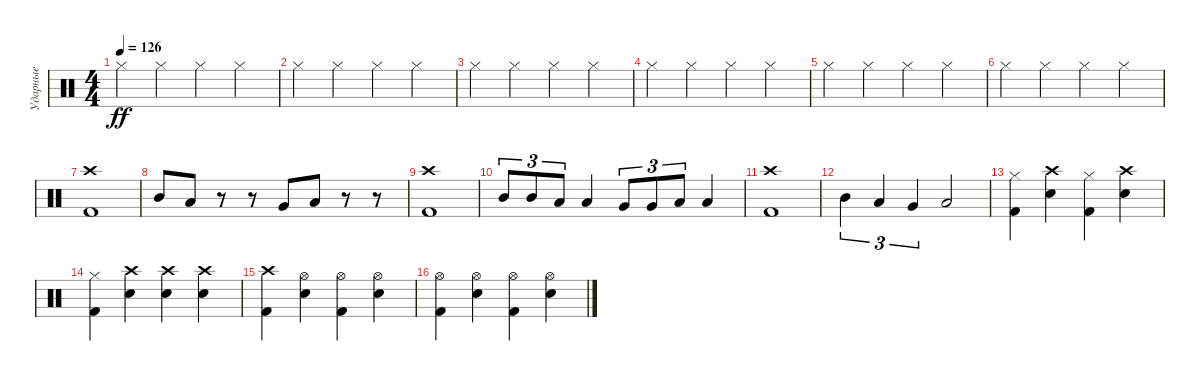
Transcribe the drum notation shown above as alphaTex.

\track ("Ударные" "Ударные") {instrument percussion}
\staff {score}
\articulation defaults
\ts (4 4)
\tempo 126
\clef neutral
\ks c "Hi-Hat (closed)".4{dy ff} "Hi-Hat (closed)".4 "Hi-Hat (closed)".4 "Hi-Hat (closed)".4
|
"Hi-Hat (closed)".4 "Hi-Hat (closed)".4 "Hi-Hat (closed)".4 "Hi-Hat (closed)".4 |
"Hi-Hat (closed)".4 "Hi-Hat (closed)".4 "Hi-Hat (closed)".4 "Hi-Hat (closed)".4 |
"Hi-Hat (closed)".4 "Hi-Hat (closed)".4 "Hi-Hat (closed)".4 "Hi-Hat (closed)".4 |
"Hi-Hat (closed)".4 "Hi-Hat (closed)".4 "Hi-Hat (closed)".4 "Hi-Hat (closed)".4 |
"Hi-Hat (closed)".4 "Hi-Hat (closed)".4 "Hi-Hat (closed)".4 "Hi-Hat (closed)".4 |
("Crash high (hit)" "Kick (hit) 2").1 |
"Mid Tom (hit)".8 "Low Tom (hit)".8 r.8 r.8 "Very Low Tom (hit)".8 "Low Floor Tom (hit)".8 r.8 r.8 |
("Crash high (hit)" "Kick (hit) 2").1 |
"Mid Tom (hit)".8{tu (3 2)} "Mid Tom (hit)".8{tu (3 2)} "Low Tom (hit)".8{tu (3 2)} "Low Tom (hit)".4 "Very Low Tom (hit)".8{tu (3 2)} "Very Low Tom (hit)".8{tu (3 2)} "Low Floor Tom (hit)".8{tu (3 2)} "Low Floor Tom (hit)".4 |
("Crash high (hit)" "Kick (hit) 2").1 |
"Mid Tom (hit)".4{tu (3 2)} "Low Tom (hit)".4{tu (3 2)} "Very Low Tom (hit)".4{tu (3 2)} "Low Floor Tom (hit)".2 |
("Kick (hit) 2" "Hi-Hat (closed)").4 ("Crash high (hit)" "Electric Snare (hit)").4 ("Kick (hit) 2" "Hi-Hat (closed)").4 ("Electric Snare (hit)" "Crash high (hit)").4 |
("Kick (hit) 2" "Hi-Hat (closed)").4 ("Crash high (hit)" "Electric Snare (hit)").4 ("Electric Snare (hit)" "Crash high (hit)").4 ("Electric Snare (hit)" "Crash high (hit)").4 |
("Crash high (hit)" "Kick (hit) 2").4 ("Hi-Hat (open)" "Electric Snare (hit)").4 ("Hi-Hat (open)" "Kick (hit) 2").4 ("Hi-Hat (open)" "Electric Snare (hit)").4 |
("Hi-Hat (open)" "Kick (hit) 2").4 ("Hi-Hat (open)" "Electric Snare (hit)").4 ("Hi-Hat (open)" "Kick (hit) 2").4 ("Hi-Hat (open)" "Electric Snare (hit)").4
